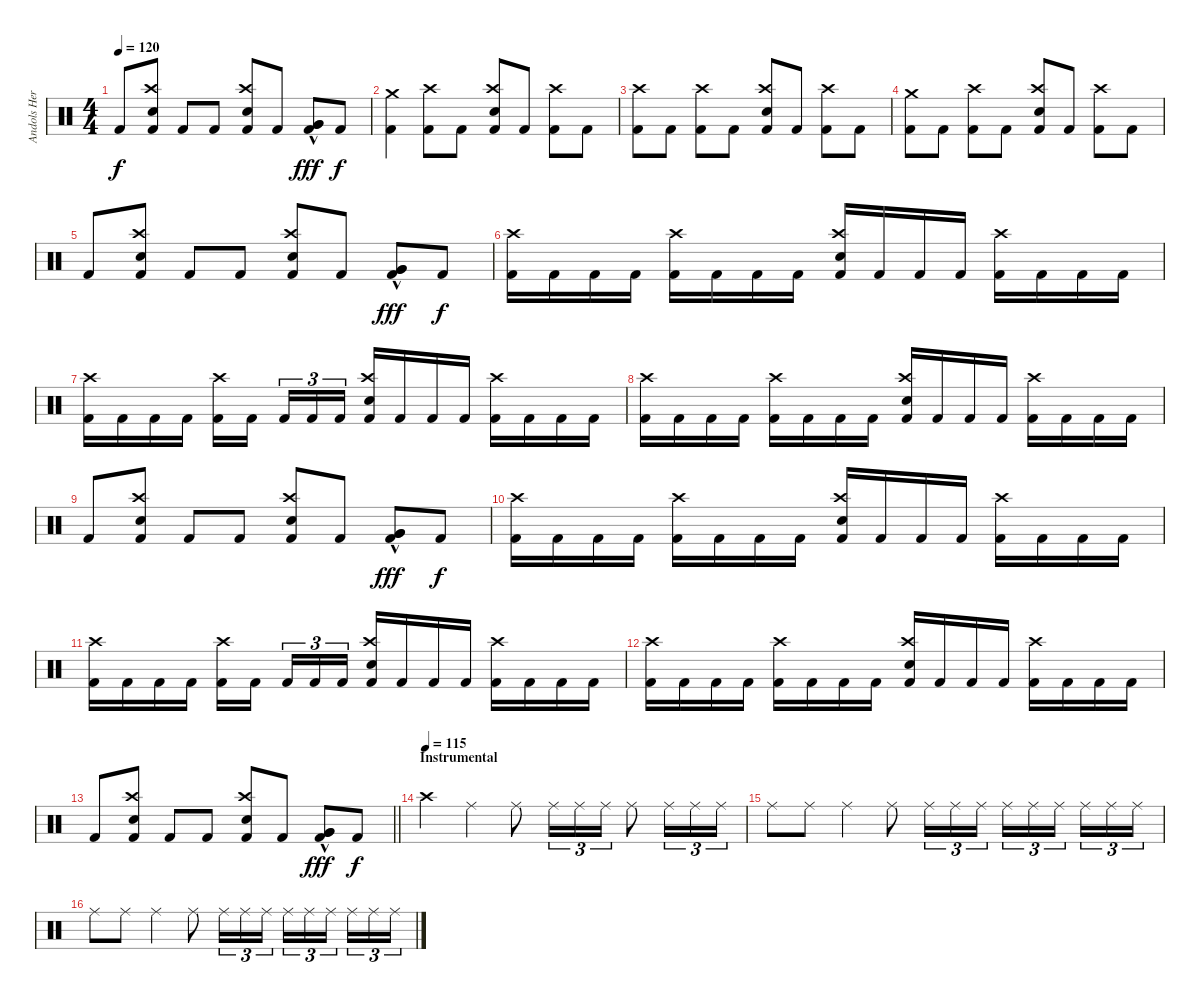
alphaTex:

\track ("Andols Herrick" "Andols Her") {instrument percussion}
\staff {score}
\articulation defaults
\ts (4 4)
\tempo 120
\clef neutral
\ks c "Kick (hit) 2".8{dy f}
("Crash high (hit)" "Electric Snare (hit)" "Kick (hit) 2").8 "Kick (hit) 2".8 "Kick (hit) 2".8 ("Crash high (hit)" "Electric Snare (hit)" "Kick (hit) 2").8 "Kick (hit) 2".8 ("Very Low Tom (hit)"{hac} "Very Low Tom (hit)"{hac} "Kick (hit) 2").8{dy fff} "Kick (hit) 2".8{dy f} |
("Crash medium (hit)" "Kick (hit) 2").4 ("Crash high (hit)" "Kick (hit) 2").8 "Kick (hit) 2".8 ("Crash high (hit)" "Electric Snare (hit)" "Kick (hit) 2").8 "Kick (hit) 2".8 ("Crash high (hit)" "Kick (hit) 2").8 "Kick (hit) 2".8 |
("Crash high (hit)" "Kick (hit) 2").8 "Kick (hit) 2".8 ("Crash high (hit)" "Kick (hit) 2").8 "Kick (hit) 2".8 ("Crash high (hit)" "Electric Snare (hit)" "Kick (hit) 2").8 "Kick (hit) 2".8 ("Crash high (hit)" "Kick (hit) 2").8 "Kick (hit) 2".8 |
("Crash medium (hit)" "Kick (hit) 2").8 "Kick (hit) 2".8 ("Crash high (hit)" "Kick (hit) 2").8 "Kick (hit) 2".8 ("Crash high (hit)" "Electric Snare (hit)" "Kick (hit) 2").8 "Kick (hit) 2".8 ("Crash high (hit)" "Kick (hit) 2").8 "Kick (hit) 2".8 |
"Kick (hit) 2".8 ("Crash high (hit)" "Electric Snare (hit)" "Kick (hit) 2").8 "Kick (hit) 2".8 "Kick (hit) 2".8 ("Crash high (hit)" "Electric Snare (hit)" "Kick (hit) 2").8 "Kick (hit) 2".8 ("Very Low Tom (hit)"{hac} "Very Low Tom (hit)"{hac} "Kick (hit) 2").8{dy fff} "Kick (hit) 2".8{dy f} |
("Crash high (hit)" "Kick (hit) 2").16 "Kick (hit) 2".16 "Kick (hit) 2".16 "Kick (hit) 2".16 ("Crash high (hit)" "Kick (hit) 2").16 "Kick (hit) 2".16 "Kick (hit) 2".16 "Kick (hit) 2".16 ("Crash high (hit)" "Electric Snare (hit)" "Kick (hit) 2").16 "Kick (hit) 2".16 "Kick (hit) 2".16 "Kick (hit) 2".16 ("Crash high (hit)" "Kick (hit) 2").16 "Kick (hit) 2".16 "Kick (hit) 2".16 "Kick (hit) 2".16 |
("Crash high (hit)" "Kick (hit) 2").16 "Kick (hit) 2".16 "Kick (hit) 2".16 "Kick (hit) 2".16 ("Crash high (hit)" "Kick (hit) 2").16 "Kick (hit) 2".16{beam splitsecondary} "Kick (hit) 2".16{tu (3 2)} "Kick (hit) 2".16{tu (3 2)} "Kick (hit) 2".16{tu (3 2)} ("Crash high (hit)" "Electric Snare (hit)" "Kick (hit) 2").16 "Kick (hit) 2".16 "Kick (hit) 2".16 "Kick (hit) 2".16 ("Crash high (hit)" "Kick (hit) 2").16 "Kick (hit) 2".16 "Kick (hit) 2".16 "Kick (hit) 2".16 |
("Crash high (hit)" "Kick (hit) 2").16 "Kick (hit) 2".16 "Kick (hit) 2".16 "Kick (hit) 2".16 ("Crash high (hit)" "Kick (hit) 2").16 "Kick (hit) 2".16 "Kick (hit) 2".16 "Kick (hit) 2".16 ("Crash high (hit)" "Electric Snare (hit)" "Kick (hit) 2").16 "Kick (hit) 2".16 "Kick (hit) 2".16 "Kick (hit) 2".16 ("Crash high (hit)" "Kick (hit) 2").16 "Kick (hit) 2".16 "Kick (hit) 2".16 "Kick (hit) 2".16 |
"Kick (hit) 2".8 ("Crash high (hit)" "Electric Snare (hit)" "Kick (hit) 2").8 "Kick (hit) 2".8 "Kick (hit) 2".8 ("Crash high (hit)" "Electric Snare (hit)" "Kick (hit) 2").8 "Kick (hit) 2".8 ("Very Low Tom (hit)"{hac} "Very Low Tom (hit)"{hac} "Kick (hit) 2").8{dy fff} "Kick (hit) 2".8{dy f} |
("Crash high (hit)" "Kick (hit) 2").16 "Kick (hit) 2".16 "Kick (hit) 2".16 "Kick (hit) 2".16 ("Crash high (hit)" "Kick (hit) 2").16 "Kick (hit) 2".16 "Kick (hit) 2".16 "Kick (hit) 2".16 ("Crash high (hit)" "Electric Snare (hit)" "Kick (hit) 2").16 "Kick (hit) 2".16 "Kick (hit) 2".16 "Kick (hit) 2".16 ("Crash high (hit)" "Kick (hit) 2").16 "Kick (hit) 2".16 "Kick (hit) 2".16 "Kick (hit) 2".16 |
("Crash high (hit)" "Kick (hit) 2").16 "Kick (hit) 2".16 "Kick (hit) 2".16 "Kick (hit) 2".16 ("Crash high (hit)" "Kick (hit) 2").16 "Kick (hit) 2".16{beam splitsecondary} "Kick (hit) 2".16{tu (3 2)} "Kick (hit) 2".16{tu (3 2)} "Kick (hit) 2".16{tu (3 2)} ("Crash high (hit)" "Electric Snare (hit)" "Kick (hit) 2").16 "Kick (hit) 2".16 "Kick (hit) 2".16 "Kick (hit) 2".16 ("Crash high (hit)" "Kick (hit) 2").16 "Kick (hit) 2".16 "Kick (hit) 2".16 "Kick (hit) 2".16 |
("Crash high (hit)" "Kick (hit) 2").16 "Kick (hit) 2".16 "Kick (hit) 2".16 "Kick (hit) 2".16 ("Crash high (hit)" "Kick (hit) 2").16 "Kick (hit) 2".16 "Kick (hit) 2".16 "Kick (hit) 2".16 ("Crash high (hit)" "Electric Snare (hit)" "Kick (hit) 2").16 "Kick (hit) 2".16 "Kick (hit) 2".16 "Kick (hit) 2".16 ("Crash high (hit)" "Kick (hit) 2").16 "Kick (hit) 2".16 "Kick (hit) 2".16 "Kick (hit) 2".16 |
\barLineRight lightlight "Kick (hit) 2".8
("Crash high (hit)" "Electric Snare (hit)" "Kick (hit) 2").8 "Kick (hit) 2".8 "Kick (hit) 2".8 ("Crash high (hit)" "Electric Snare (hit)" "Kick (hit) 2").8 "Kick (hit) 2".8 ("Very Low Tom (hit)"{hac} "Very Low Tom (hit)"{hac} "Kick (hit) 2").8{dy fff} "Kick (hit) 2".8{dy f} |
\section ("" "Instrumental")
\tempo (115)
"Crash high (hit)".4 "Ride (middle)".4 "Ride (middle)".8 "Ride (middle)".16{tu (3 2)} "Ride (middle)".16{tu (3 2)} "Ride (middle)".16{tu (3 2)} "Ride (middle)".8 "Ride (middle)".16{tu (3 2)} "Ride (middle)".16{tu (3 2)} "Ride (middle)".16{tu (3 2)} |
"Ride (middle)".8 "Ride (middle)".8 "Ride (middle)".4 "Ride (middle)".8 "Ride (middle)".16{tu (3 2)} "Ride (middle)".16{tu (3 2)} "Ride (middle)".16{tu (3 2)} "Ride (middle)".16{tu (3 2)} "Ride (middle)".16{tu (3 2)} "Ride (middle)".16{tu (3 2) beam splitsecondary} "Ride (middle)".16{tu (3 2)} "Ride (middle)".16{tu (3 2)} "Ride (middle)".16{tu (3 2)} |
"Ride (middle)".8 "Ride (middle)".8 "Ride (middle)".4 "Ride (middle)".8 "Ride (middle)".16{tu (3 2)} "Ride (middle)".16{tu (3 2)} "Ride (middle)".16{tu (3 2)} "Ride (middle)".16{tu (3 2)} "Ride (middle)".16{tu (3 2)} "Ride (middle)".16{tu (3 2) beam splitsecondary} "Ride (middle)".16{tu (3 2)} "Ride (middle)".16{tu (3 2)} "Ride (middle)".16{tu (3 2)}
